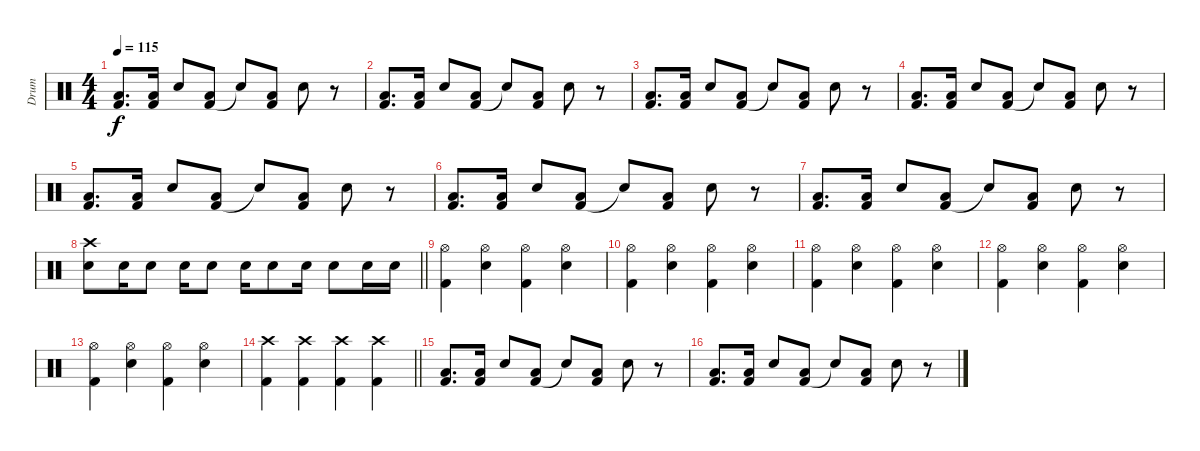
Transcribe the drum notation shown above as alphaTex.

\track ("Drum" "Drum") {instrument percussion}
\staff {score}
\articulation defaults
\ts (4 4)
\tempo 115
\clef neutral
\ks c
("Kick (hit) 2" "Low Floor Tom (hit)").8{d dy f} ("Kick (hit) 2" "Low Floor Tom (hit)").16 "Snare (hit) 2".8 ("Kick (hit) 2" "Low Floor Tom (hit)").8 "Snare (hit)"{t}.8 ("Kick (hit) 2" "Low Floor Tom (hit)").8 "Snare (hit) 2".8 r.8 |
("Kick (hit) 2" "Low Floor Tom (hit)").8{d} ("Kick (hit) 2" "Low Floor Tom (hit)").16 "Snare (hit) 2".8 ("Kick (hit) 2" "Low Floor Tom (hit)").8 "Snare (hit)"{t}.8 ("Kick (hit) 2" "Low Floor Tom (hit)").8 "Snare (hit) 2".8 r.8 |
("Kick (hit) 2" "Low Floor Tom (hit)").8{d} ("Kick (hit) 2" "Low Floor Tom (hit)").16 "Snare (hit) 2".8 ("Kick (hit) 2" "Low Floor Tom (hit)").8 "Snare (hit)"{t}.8 ("Kick (hit) 2" "Low Floor Tom (hit)").8 "Snare (hit) 2".8 r.8 |
("Kick (hit) 2" "Low Floor Tom (hit)").8{d} ("Kick (hit) 2" "Low Floor Tom (hit)").16 "Snare (hit) 2".8 ("Kick (hit) 2" "Low Floor Tom (hit)").8 "Snare (hit)"{t}.8 ("Kick (hit) 2" "Low Floor Tom (hit)").8 "Snare (hit) 2".8 r.8 |
("Kick (hit) 2" "Low Floor Tom (hit)").8{d} ("Kick (hit) 2" "Low Floor Tom (hit)").16 "Snare (hit) 2".8 ("Kick (hit) 2" "Low Floor Tom (hit)").8 "Snare (hit)"{t}.8 ("Kick (hit) 2" "Low Floor Tom (hit)").8 "Snare (hit) 2".8 r.8 |
("Kick (hit) 2" "Low Floor Tom (hit)").8{d} ("Kick (hit) 2" "Low Floor Tom (hit)").16 "Snare (hit) 2".8 ("Kick (hit) 2" "Low Floor Tom (hit)").8 "Snare (hit)"{t}.8 ("Kick (hit) 2" "Low Floor Tom (hit)").8 "Snare (hit) 2".8 r.8 |
("Kick (hit) 2" "Low Floor Tom (hit)").8{d} ("Kick (hit) 2" "Low Floor Tom (hit)").16 "Snare (hit) 2".8 ("Kick (hit) 2" "Low Floor Tom (hit)").8 "Snare (hit)"{t}.8 ("Kick (hit) 2" "Low Floor Tom (hit)").8 "Snare (hit) 2".8 r.8 |
\barLineRight lightlight
("Snare (hit) 2" "Crash high (hit)").8 "Snare (hit) 2".16 "Snare (hit) 2".8 "Snare (hit) 2".16 "Snare (hit) 2".8 "Snare (hit) 2".16 "Snare (hit) 2".8 "Snare (hit) 2".16 "Snare (hit) 2".8 "Snare (hit) 2".16 "Snare (hit) 2".16 |
\section ("" "")
("Kick (hit) 2" "Hi-Hat (open)").4 ("Snare (hit) 2" "Hi-Hat (open)").4 ("Kick (hit) 2" "Hi-Hat (open)").4 ("Snare (hit) 2" "Hi-Hat (open)").4 |
("Kick (hit) 2" "Hi-Hat (open)").4 ("Snare (hit) 2" "Hi-Hat (open)").4 ("Kick (hit) 2" "Hi-Hat (open)").4 ("Snare (hit) 2" "Hi-Hat (open)").4 |
("Kick (hit) 2" "Hi-Hat (open)").4 ("Snare (hit) 2" "Hi-Hat (open)").4 ("Kick (hit) 2" "Hi-Hat (open)").4 ("Snare (hit) 2" "Hi-Hat (open)").4 |
("Kick (hit) 2" "Hi-Hat (open)").4 ("Snare (hit) 2" "Hi-Hat (open)").4 ("Kick (hit) 2" "Hi-Hat (open)").4 ("Snare (hit) 2" "Hi-Hat (open)").4 |
("Kick (hit) 2" "Hi-Hat (open)").4 ("Snare (hit) 2" "Hi-Hat (open)").4 ("Kick (hit) 2" "Hi-Hat (open)").4 ("Snare (hit) 2" "Hi-Hat (open)").4 |
\barLineRight lightlight
("Kick (hit) 2" "Crash high (hit)").4 ("Kick (hit) 2" "Crash high (hit)").4 ("Kick (hit) 2" "Crash high (hit)").4 ("Kick (hit) 2" "Crash high (hit)").4 |
\section ("" "")
("Kick (hit) 2" "Low Floor Tom (hit)").8{d} ("Kick (hit) 2" "Low Floor Tom (hit)").16 "Snare (hit) 2".8 ("Kick (hit) 2" "Low Floor Tom (hit)").8 "Snare (hit)"{t}.8 ("Kick (hit) 2" "Low Floor Tom (hit)").8 "Snare (hit) 2".8 r.8 |
("Kick (hit) 2" "Low Floor Tom (hit)").8{d} ("Kick (hit) 2" "Low Floor Tom (hit)").16 "Snare (hit) 2".8 ("Kick (hit) 2" "Low Floor Tom (hit)").8 "Snare (hit)"{t}.8 ("Kick (hit) 2" "Low Floor Tom (hit)").8 "Snare (hit) 2".8 r.8
